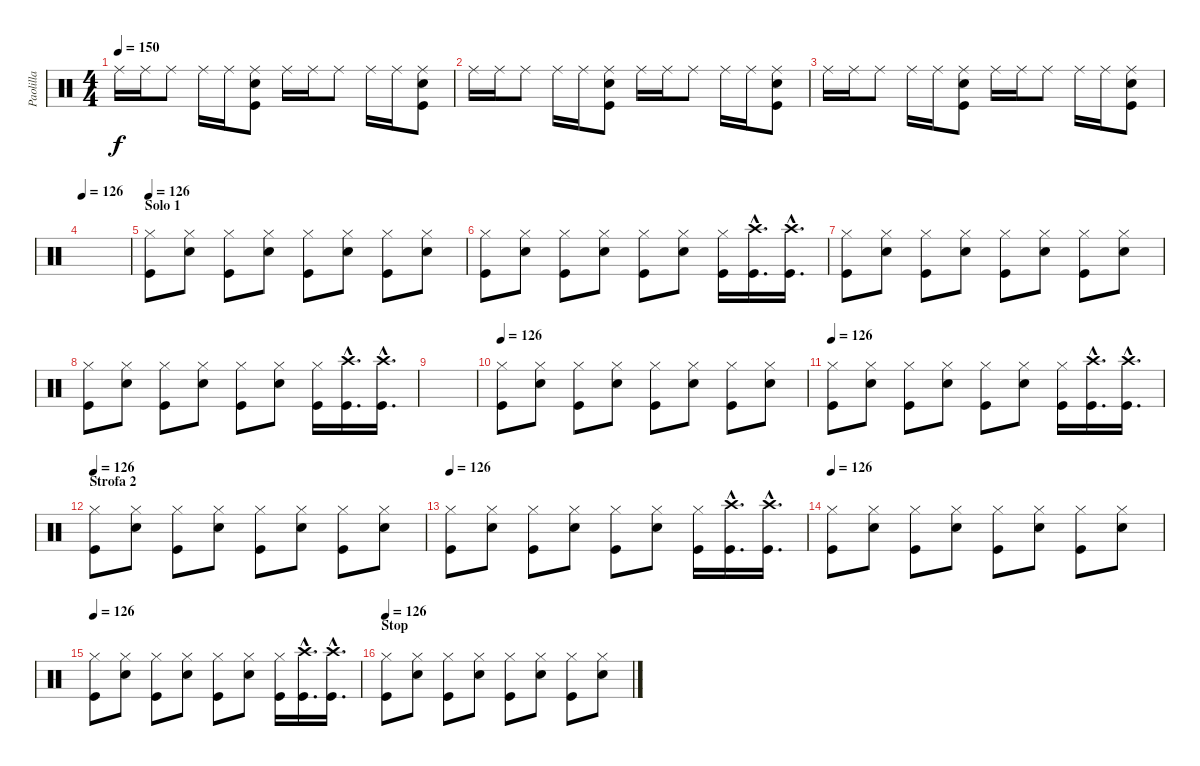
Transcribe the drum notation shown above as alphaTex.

\track ("Paolilla" "Paolilla") {instrument percussion}
\staff {score}
\articulation defaults
\ts (4 4)
\tempo 150
\clef neutral
\ks c "Ride (middle)".16{dy f} "Ride (middle)".16 "Ride (middle)".8 "Ride (middle)".16 "Ride (middle)".16
("Ride (middle)" "Snare (hit) 2" "Kick (hit)").8 "Ride (middle)".16 "Ride (middle)".16 "Ride (middle)".8 "Ride (middle)".16 "Ride (middle)".16 ("Ride (middle)" "Snare (hit) 2" "Kick (hit)").8 |
"Ride (middle)".16 "Ride (middle)".16 "Ride (middle)".8 "Ride (middle)".16 "Ride (middle)".16 ("Ride (middle)" "Snare (hit) 2" "Kick (hit)").8 "Ride (middle)".16 "Ride (middle)".16 "Ride (middle)".8 "Ride (middle)".16 "Ride (middle)".16 ("Ride (middle)" "Snare (hit) 2" "Kick (hit)").8 |
"Ride (middle)".16 "Ride (middle)".16 "Ride (middle)".8 "Ride (middle)".16 "Ride (middle)".16 ("Ride (middle)" "Snare (hit) 2" "Kick (hit)").8 "Ride (middle)".16 "Ride (middle)".16 "Ride (middle)".8 "Ride (middle)".16 "Ride (middle)".16 ("Ride (middle)" "Snare (hit) 2" "Kick (hit)").8 |
\tempo 126
|
\section ("" "Solo 1")
\tempo 126
("Hi-Hat (closed)" "Kick (hit)").8 ("Hi-Hat (closed)" "Snare (hit) 2").8 ("Hi-Hat (closed)" "Kick (hit)").8 ("Hi-Hat (closed)" "Snare (hit) 2").8 ("Hi-Hat (closed)" "Kick (hit)").8 ("Hi-Hat (closed)" "Snare (hit) 2").8 ("Hi-Hat (closed)" "Kick (hit)").8 ("Hi-Hat (closed)" "Snare (hit) 2").8 |
("Hi-Hat (closed)" "Kick (hit)").8 ("Hi-Hat (closed)" "Snare (hit) 2").8 ("Hi-Hat (closed)" "Kick (hit)").8 ("Hi-Hat (closed)" "Snare (hit) 2").8 ("Hi-Hat (closed)" "Kick (hit)").8 ("Hi-Hat (closed)" "Snare (hit) 2").8 ("Hi-Hat (closed)" "Kick (hit)").16 ("Crash high (hit)"{hac} "Kick (hit)"{hac}).16{d} ("Crash high (hit)"{hac} "Kick (hit)"{hac}).16{d} |
("Hi-Hat (closed)" "Kick (hit)").8 ("Hi-Hat (closed)" "Snare (hit) 2").8 ("Hi-Hat (closed)" "Kick (hit)").8 ("Hi-Hat (closed)" "Snare (hit) 2").8 ("Hi-Hat (closed)" "Kick (hit)").8 ("Hi-Hat (closed)" "Snare (hit) 2").8 ("Hi-Hat (closed)" "Kick (hit)").8 ("Hi-Hat (closed)" "Snare (hit) 2").8 |
("Hi-Hat (closed)" "Kick (hit)").8 ("Hi-Hat (closed)" "Snare (hit) 2").8 ("Hi-Hat (closed)" "Kick (hit)").8 ("Hi-Hat (closed)" "Snare (hit) 2").8 ("Hi-Hat (closed)" "Kick (hit)").8 ("Hi-Hat (closed)" "Snare (hit) 2").8 ("Hi-Hat (closed)" "Kick (hit)").16 ("Crash high (hit)"{hac} "Kick (hit)"{hac}).16{d} ("Crash high (hit)"{hac} "Kick (hit)"{hac}).16{d} |
|
\tempo 126
("Hi-Hat (closed)" "Kick (hit)").8 ("Hi-Hat (closed)" "Snare (hit) 2").8 ("Hi-Hat (closed)" "Kick (hit)").8 ("Hi-Hat (closed)" "Snare (hit) 2").8 ("Hi-Hat (closed)" "Kick (hit)").8 ("Hi-Hat (closed)" "Snare (hit) 2").8 ("Hi-Hat (closed)" "Kick (hit)").8 ("Hi-Hat (closed)" "Snare (hit) 2").8 |
\tempo 126
("Hi-Hat (closed)" "Kick (hit)").8 ("Hi-Hat (closed)" "Snare (hit) 2").8 ("Hi-Hat (closed)" "Kick (hit)").8 ("Hi-Hat (closed)" "Snare (hit) 2").8 ("Hi-Hat (closed)" "Kick (hit)").8 ("Hi-Hat (closed)" "Snare (hit) 2").8 ("Hi-Hat (closed)" "Kick (hit)").16 ("Crash high (hit)"{hac} "Kick (hit)"{hac}).16{d} ("Crash high (hit)"{hac} "Kick (hit)"{hac}).16{d} |
\section ("" "Strofa 2")
\tempo 126
("Hi-Hat (closed)" "Kick (hit)").8 ("Hi-Hat (closed)" "Snare (hit) 2").8 ("Hi-Hat (closed)" "Kick (hit)").8 ("Hi-Hat (closed)" "Snare (hit) 2").8 ("Hi-Hat (closed)" "Kick (hit)").8 ("Hi-Hat (closed)" "Snare (hit) 2").8 ("Hi-Hat (closed)" "Kick (hit)").8 ("Hi-Hat (closed)" "Snare (hit) 2").8 |
\tempo 126
("Hi-Hat (closed)" "Kick (hit)").8 ("Hi-Hat (closed)" "Snare (hit) 2").8 ("Hi-Hat (closed)" "Kick (hit)").8 ("Hi-Hat (closed)" "Snare (hit) 2").8 ("Hi-Hat (closed)" "Kick (hit)").8 ("Hi-Hat (closed)" "Snare (hit) 2").8 ("Hi-Hat (closed)" "Kick (hit)").16 ("Crash high (hit)"{hac} "Kick (hit)"{hac}).16{d} ("Crash high (hit)"{hac} "Kick (hit)"{hac}).16{d} |
\tempo 126
("Hi-Hat (closed)" "Kick (hit)").8 ("Hi-Hat (closed)" "Snare (hit) 2").8 ("Hi-Hat (closed)" "Kick (hit)").8 ("Hi-Hat (closed)" "Snare (hit) 2").8 ("Hi-Hat (closed)" "Kick (hit)").8 ("Hi-Hat (closed)" "Snare (hit) 2").8 ("Hi-Hat (closed)" "Kick (hit)").8 ("Hi-Hat (closed)" "Snare (hit) 2").8 |
\tempo 126
("Hi-Hat (closed)" "Kick (hit)").8 ("Hi-Hat (closed)" "Snare (hit) 2").8 ("Hi-Hat (closed)" "Kick (hit)").8 ("Hi-Hat (closed)" "Snare (hit) 2").8 ("Hi-Hat (closed)" "Kick (hit)").8 ("Hi-Hat (closed)" "Snare (hit) 2").8 ("Hi-Hat (closed)" "Kick (hit)").16 ("Crash high (hit)"{hac} "Kick (hit)"{hac}).16{d} ("Crash high (hit)"{hac} "Kick (hit)"{hac}).16{d} |
\section ("" "Stop")
\tempo 126
("Hi-Hat (closed)" "Kick (hit)").8 ("Hi-Hat (closed)" "Snare (hit) 2").8 ("Hi-Hat (closed)" "Kick (hit)").8 ("Hi-Hat (closed)" "Snare (hit) 2").8 ("Hi-Hat (closed)" "Kick (hit)").8 ("Hi-Hat (closed)" "Snare (hit) 2").8 ("Hi-Hat (closed)" "Kick (hit)").8 ("Hi-Hat (closed)" "Snare (hit) 2").8
